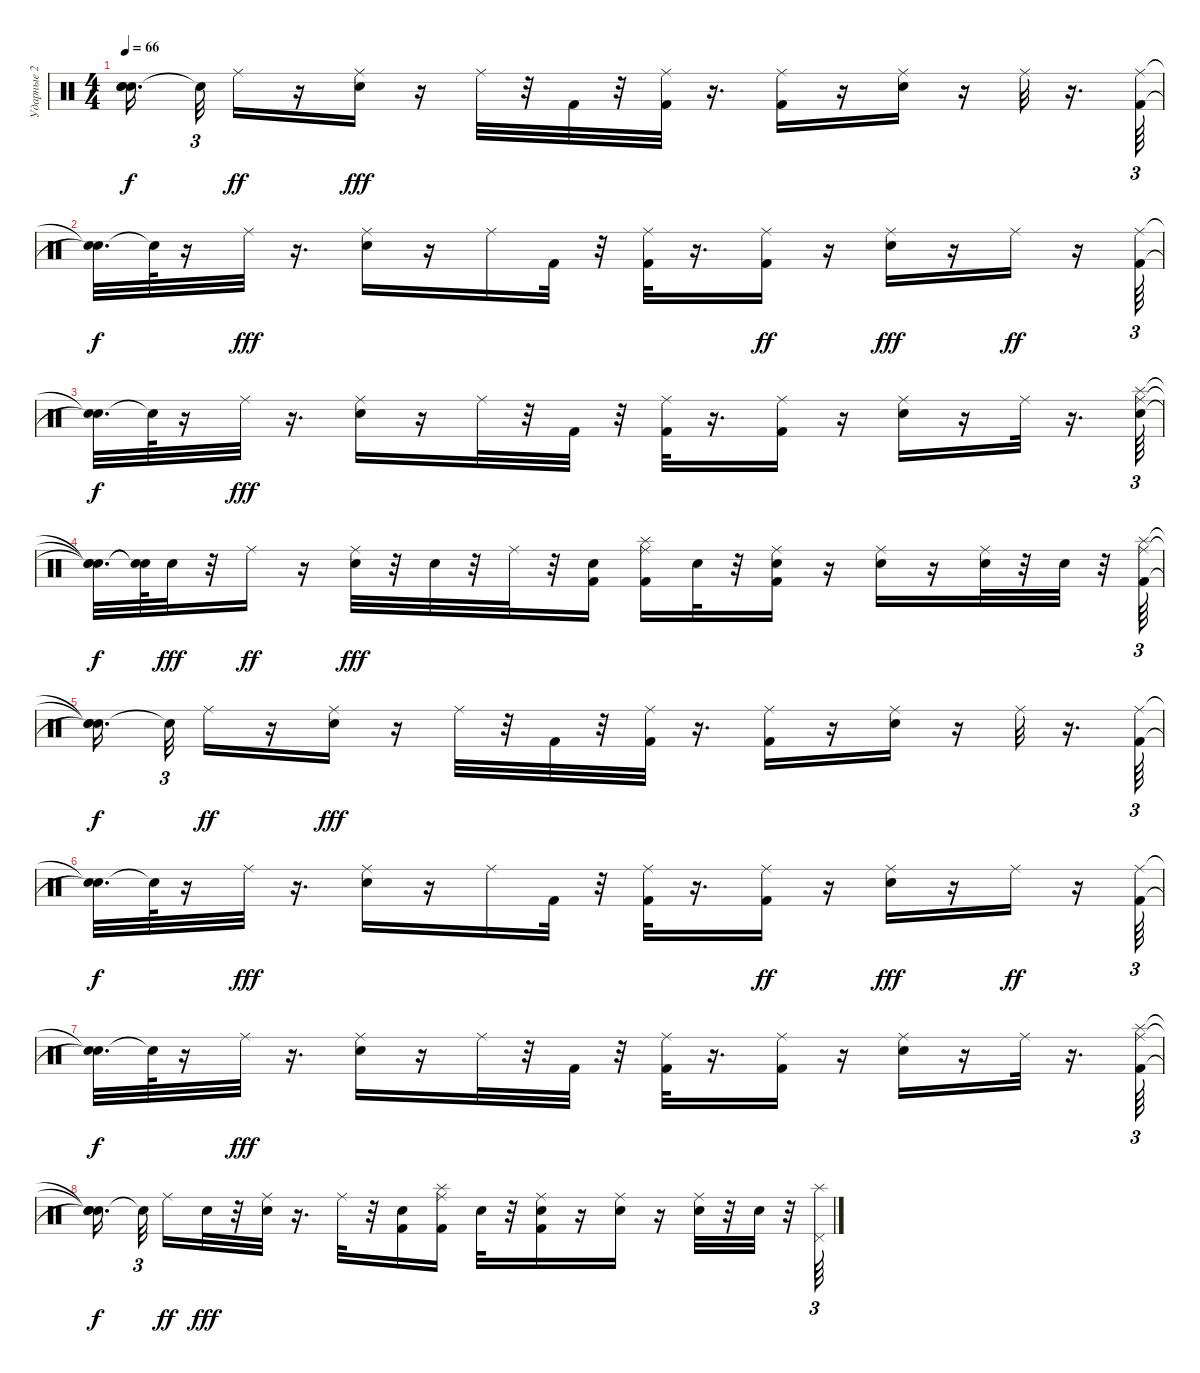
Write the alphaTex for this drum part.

\track ("Ударные 2" "Ударные 2") {instrument percussion}
\staff {score}
\articulation defaults
\ts (4 4)
\tempo 66
\clef neutral
\ks c
("Snare (hit)"{t} "Snare (hit)"{t} "Snare (hit)"{t}).16{d dy f beam splitsecondary} "Snare (hit)"{t}.32{tu (3 2)} "Ride (middle)".16{dy ff} r.16 ("Snare (hit) 2" "Ride (middle)").16{dy fff} r.16 "Ride (middle)".32 r.32 "Kick (hit) 2".32 r.32 ("Kick (hit) 2" "Ride (middle)").32 r.16{d} ("Kick (hit) 2" "Ride (middle)").16 r.16 ("Snare (hit) 2" "Ride (middle)").16 r.16 "Ride (middle)".32 r.16{d} ("Kick (hit) 2" "Ride (middle)").64{tu (3 2)} |
("Snare (hit)"{t} "Snare (hit)"{t}).32{d dy f} "Snare (hit)"{t}.64 r.16 "Ride (middle)".32{dy fff} r.16{d} ("Ride (middle)" "Snare (hit) 2").16 r.16 "Ride (middle)".16 "Kick (hit) 2".32 r.32 ("Ride (middle)" "Kick (hit) 2").32 r.16{d} ("Kick (hit) 2" "Ride (middle)").16{dy ff} r.16 ("Ride (middle)" "Snare (hit) 2").16{dy fff} r.16 "Ride (middle)".16{dy ff} r.16 ("Kick (hit) 2" "Ride (middle)").64{tu (3 2)} |
("Snare (hit)"{t} "Snare (hit)"{t}).32{d dy f} "Snare (hit)"{t}.64 r.16 "Ride (middle)".32{dy fff} r.16{d} ("Snare (hit) 2" "Ride (middle)").16 r.16 "Ride (middle)".32 r.32 "Kick (hit) 2".32 r.32 ("Kick (hit) 2" "Ride (middle)").32 r.16{d} ("Ride (middle)" "Kick (hit) 2").16 r.16 ("Snare (hit) 2" "Ride (middle)").16 r.16 "Ride (middle)".32 r.16{d} ("Ride (middle)" "Splash (hit)" "Snare (hit) 2").64{tu (3 2)} |
("Snare (hit)"{t} "Snare (hit)"{t} "Snare (hit)"{t}).32{d dy f} ("Snare (hit)"{t} "Snare (hit)"{t}).64 "Snare (hit) 2".32{dy fff} r.32 "Ride (middle)".16{dy ff} r.16 ("Ride (middle)" "Snare (hit) 2").32{dy fff} r.32 "Snare (hit) 2".32 r.32 "Ride (middle)".32 r.32 ("Snare (hit) 2" "Kick (hit) 2").16 ("Ride (middle)" "Splash (hit)" "Kick (hit) 2").16 "Snare (hit) 2".32 r.32 ("Kick (hit) 2" "Ride (middle)" "Snare (hit) 2").16 r.16 ("Ride (middle)" "Snare (hit) 2").16 r.16 ("Ride (middle)" "Snare (hit) 2").32 r.32 "Snare (hit) 2".32 r.32 ("Ride (middle)" "Splash (hit)" "Kick (hit) 2").64{tu (3 2)} |
("Snare (hit)"{t} "Snare (hit)"{t} "Snare (hit)"{t}).16{d dy f beam splitsecondary} "Snare (hit)"{t}.32{tu (3 2)} "Ride (middle)".16{dy ff} r.16 ("Snare (hit) 2" "Ride (middle)").16{dy fff} r.16 "Ride (middle)".32 r.32 "Kick (hit) 2".32 r.32 ("Kick (hit) 2" "Ride (middle)").32 r.16{d} ("Kick (hit) 2" "Ride (middle)").16 r.16 ("Ride (middle)" "Snare (hit) 2").16 r.16 "Ride (middle)".32 r.16{d} ("Kick (hit) 2" "Ride (middle)").64{tu (3 2)} |
("Snare (hit)"{t} "Snare (hit)"{t}).32{d dy f} "Snare (hit)"{t}.64 r.16 "Ride (middle)".32{dy fff} r.16{d} ("Ride (middle)" "Snare (hit) 2").16 r.16 "Ride (middle)".16 "Kick (hit) 2".32 r.32 ("Ride (middle)" "Kick (hit) 2").32 r.16{d} ("Kick (hit) 2" "Ride (middle)").16{dy ff} r.16 ("Ride (middle)" "Snare (hit) 2").16{dy fff} r.16 "Ride (middle)".16{dy ff} r.16 ("Kick (hit) 2" "Ride (middle)").64{tu (3 2)} |
("Snare (hit)"{t} "Snare (hit)"{t}).32{d dy f} "Snare (hit)"{t}.64 r.16 "Ride (middle)".32{dy fff} r.16{d} ("Ride (middle)" "Snare (hit) 2").16 r.16 "Ride (middle)".32 r.32 "Kick (hit) 2".32 r.32 ("Kick (hit) 2" "Ride (middle)").32 r.16{d} ("Kick (hit) 2" "Ride (middle)").16 r.16 ("Snare (hit) 2" "Ride (middle)").16 r.16 "Ride (middle)".32 r.16{d} ("Splash (hit)" "Kick (hit) 2" "Ride (middle)").64{tu (3 2)} |
("Snare (hit)"{t} "Snare (hit)"{t} "Snare (hit)"{t}).16{d dy f beam splitsecondary} "Snare (hit)"{t}.32{tu (3 2) beam splitsecondary} "Ride (middle)".16{dy ff} "Snare (hit) 2".32{dy fff} r.32 ("Ride (middle)" "Snare (hit) 2").32 r.16{d} "Ride (middle)".32 r.32 ("Snare (hit) 2" "Kick (hit) 2").16 ("Kick (hit) 2" "Ride (middle)" "Splash (hit)").16 "Snare (hit) 2".32 r.32 ("Ride (middle)" "Snare (hit) 2" "Kick (hit) 2").16 r.16 ("Ride (middle)" "Snare (hit) 2").16 r.16 ("Ride (middle)" "Snare (hit) 2").32 r.32 "Snare (hit) 2".32 r.32 ("Pedal Hi-Hat (hit)" "Splash (hit)").64{tu (3 2)}
